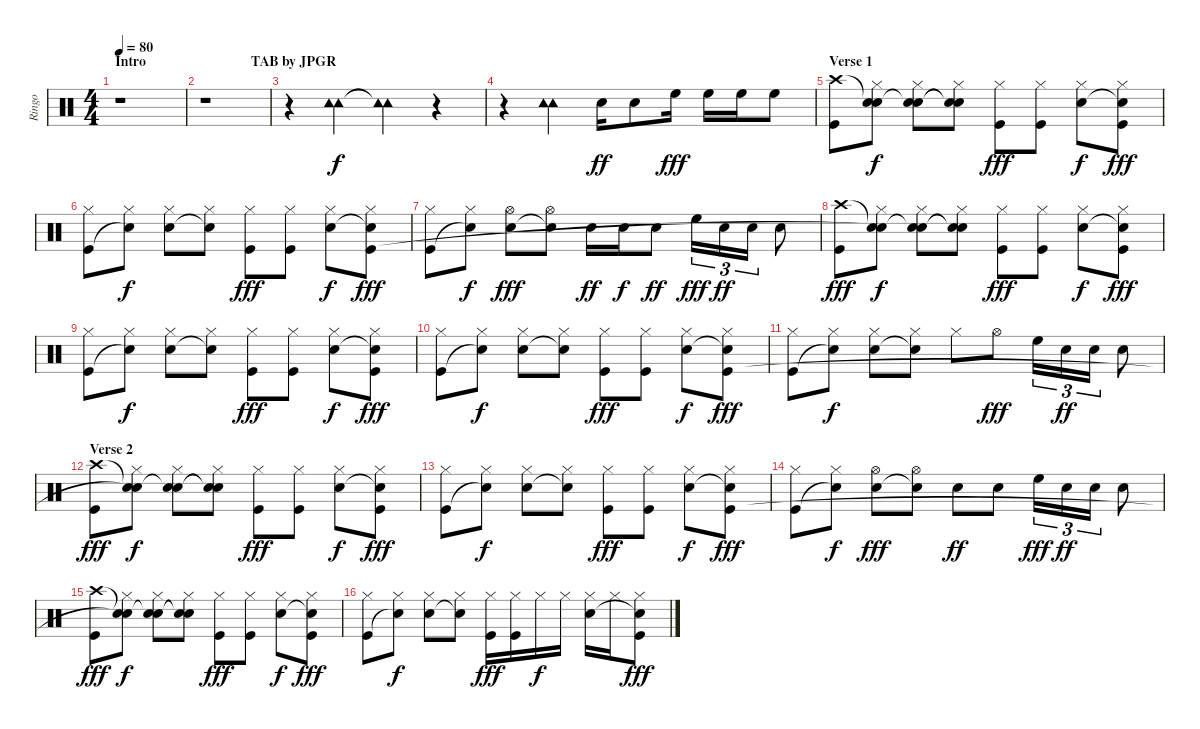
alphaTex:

\track ("Ringo" "Ringo") {instrument percussion}
\staff {score}
\articulation defaults
\ts (4 4)
\section ("" "Intro                              TAB by JPGR")
\tempo 80
\clef neutral
\ks c
r.1{dy f} |
r.1 |
r.4 ("Tambourine (hit)" "Tambourine (hit)").4 ("Tambourine (hit)"{t} "Tambourine (hit)"{t}).4 r.4 |
r.4 ("Tambourine (hit)" "Tambourine (hit)").4 "Snare (hit) 2".16{dy ff} "Snare (hit) 2".8 "High Floor Tom (hit)".16{dy fff} "High Floor Tom (hit)".16 "High Floor Tom (hit)".16 "High Floor Tom (hit)".8 |
\section ("" "Verse 1")
("Crash high (hit)" "Kick (hit)").8 ("Snare (hit)"{t} "Hi-Hat (closed)" "Snare (hit)").8{dy f} ("Snare (hit)"{t} "Hi-Hat (closed)" "Electric Snare (hit)").8 ("Snare (hit)"{t} "Hi-Hat (closed)" "Snare (hit)"{t}).8 ("Hi-Hat (closed)" "Kick (hit)").8{dy fff} ("Hi-Hat (closed)" "Kick (hit)").8 ("Hi-Hat (closed)" "Electric Snare (hit)").8{dy f} ("Hi-Hat (closed)" "Snare (hit)"{t} "Kick (hit)").8{dy fff} |
("Hi-Hat (closed)" "Kick (hit)").8 ("Hi-Hat (closed)" "Snare (hit)"{t}).8{dy f} ("Hi-Hat (closed)" "Electric Snare (hit)").8 ("Hi-Hat (closed)" "Snare (hit)"{t}).8 ("Hi-Hat (closed)" "Kick (hit)").8{dy fff} ("Hi-Hat (closed)" "Kick (hit)").8 ("Hi-Hat (closed)" "Electric Snare (hit)").8{dy f} ("Hi-Hat (closed)" "Snare (hit)"{t} "Kick (hit)").8{dy fff} |
("Hi-Hat (closed)" "Kick (hit)").8 ("Hi-Hat (closed)" "Snare (hit)"{t}).8{dy f} ("Hi-Hat (open)" "Electric Snare (hit)").8{dy fff} ("Hi-Hat (open)" "Snare (hit)"{t}).8 "Electric Snare (hit)".16{dy ff} "Electric Snare (hit)".16{dy f} "Electric Snare (hit)".8{dy ff} "High Floor Tom (hit)".16{tu (3 2) dy fff} "Electric Snare (hit)".16{tu (3 2) dy ff} "Electric Snare (hit)".16{tu (3 2)} "Electric Snare (hit)".8 |
("Crash high (hit)" "Kick (hit)").8{dy fff} ("Snare (hit)"{t} "Hi-Hat (closed)" "Snare (hit)"{t}).8{dy f} ("Snare (hit)"{t} "Hi-Hat (closed)" "Electric Snare (hit)").8 ("Snare (hit)"{t} "Hi-Hat (closed)" "Snare (hit)"{t}).8 ("Hi-Hat (closed)" "Kick (hit)").8{dy fff} ("Hi-Hat (closed)" "Kick (hit)").8 ("Hi-Hat (closed)" "Electric Snare (hit)").8{dy f} ("Hi-Hat (closed)" "Snare (hit)"{t} "Kick (hit)").8{dy fff} |
("Hi-Hat (closed)" "Kick (hit)").8 ("Hi-Hat (closed)" "Snare (hit)"{t}).8{dy f} ("Hi-Hat (closed)" "Electric Snare (hit)").8 ("Hi-Hat (closed)" "Snare (hit)"{t}).8 ("Hi-Hat (closed)" "Kick (hit)").8{dy fff} ("Hi-Hat (closed)" "Kick (hit)").8 ("Hi-Hat (closed)" "Electric Snare (hit)").8{dy f} ("Hi-Hat (closed)" "Snare (hit)"{t} "Kick (hit)").8{dy fff} |
("Hi-Hat (closed)" "Kick (hit)").8 ("Hi-Hat (closed)" "Snare (hit)"{t}).8{dy f} ("Hi-Hat (closed)" "Electric Snare (hit)").8 ("Hi-Hat (closed)" "Snare (hit)"{t}).8 ("Hi-Hat (closed)" "Kick (hit)").8{dy fff} ("Hi-Hat (closed)" "Kick (hit)").8 ("Hi-Hat (closed)" "Electric Snare (hit)").8{dy f} ("Hi-Hat (closed)" "Snare (hit)"{t} "Kick (hit)").8{dy fff} |
("Hi-Hat (closed)" "Kick (hit)").8 ("Hi-Hat (closed)" "Snare (hit)"{t}).8{dy f} ("Hi-Hat (closed)" "Electric Snare (hit)").8 ("Hi-Hat (closed)" "Snare (hit)"{t}).8 "Hi-Hat (closed)".8 "Hi-Hat (open)".8{dy fff} "High Floor Tom (hit)".16{tu (3 2)} "Electric Snare (hit)".16{tu (3 2) dy ff} "Electric Snare (hit)".16{tu (3 2)} "Electric Snare (hit)".8 |
\section ("" "Verse 2")
("Crash high (hit)" "Kick (hit)").8{dy fff} ("Snare (hit)"{t} "Hi-Hat (closed)" "Snare (hit)"{t}).8{dy f} ("Snare (hit)"{t} "Hi-Hat (closed)" "Electric Snare (hit)").8 ("Snare (hit)"{t} "Hi-Hat (closed)" "Snare (hit)"{t}).8 ("Hi-Hat (closed)" "Kick (hit)").8{dy fff} ("Hi-Hat (closed)" "Kick (hit)").8 ("Hi-Hat (closed)" "Electric Snare (hit)").8{dy f} ("Hi-Hat (closed)" "Snare (hit)"{t} "Kick (hit)").8{dy fff} |
("Hi-Hat (closed)" "Kick (hit)").8 ("Hi-Hat (closed)" "Snare (hit)"{t}).8{dy f} ("Hi-Hat (closed)" "Electric Snare (hit)").8 ("Hi-Hat (closed)" "Snare (hit)"{t}).8 ("Hi-Hat (closed)" "Kick (hit)").8{dy fff} ("Hi-Hat (closed)" "Kick (hit)").8 ("Hi-Hat (closed)" "Electric Snare (hit)").8{dy f} ("Hi-Hat (closed)" "Snare (hit)"{t} "Kick (hit)").8{dy fff} |
("Hi-Hat (closed)" "Kick (hit)").8 ("Hi-Hat (closed)" "Snare (hit)"{t}).8{dy f} ("Hi-Hat (open)" "Electric Snare (hit)").8{dy fff} ("Hi-Hat (open)" "Snare (hit)"{t}).8 "Electric Snare (hit)".8{dy ff} "Electric Snare (hit)".8 "High Floor Tom (hit)".16{tu (3 2) dy fff} "Electric Snare (hit)".16{tu (3 2) dy ff} "Electric Snare (hit)".16{tu (3 2)} "Electric Snare (hit)".8 |
("Crash high (hit)" "Kick (hit)").8{dy fff} ("Snare (hit)"{t} "Hi-Hat (closed)" "Snare (hit)"{t}).8{dy f} ("Snare (hit)"{t} "Hi-Hat (closed)" "Electric Snare (hit)").8 ("Snare (hit)"{t} "Hi-Hat (closed)" "Snare (hit)"{t}).8 ("Hi-Hat (closed)" "Kick (hit)").8{dy fff} ("Hi-Hat (closed)" "Kick (hit)").8 ("Hi-Hat (closed)" "Electric Snare (hit)").8{dy f} ("Hi-Hat (closed)" "Snare (hit)"{t} "Kick (hit)").8{dy fff} |
("Hi-Hat (closed)" "Kick (hit)").8 ("Hi-Hat (closed)" "Snare (hit)"{t}).8{dy f} ("Hi-Hat (closed)" "Electric Snare (hit)").8 ("Hi-Hat (closed)" "Snare (hit)"{t}).8 ("Hi-Hat (closed)" "Kick (hit)").16{dy fff} ("Hi-Hat (closed)" "Kick (hit)").16 "Hi-Hat (closed)".16{dy f} "Hi-Hat (closed)".16 ("Hi-Hat (closed)" "Electric Snare (hit)").16 "Hi-Hat (closed)".16 ("Hi-Hat (closed)" "Snare (hit)"{t} "Kick (hit)").8{dy fff}
